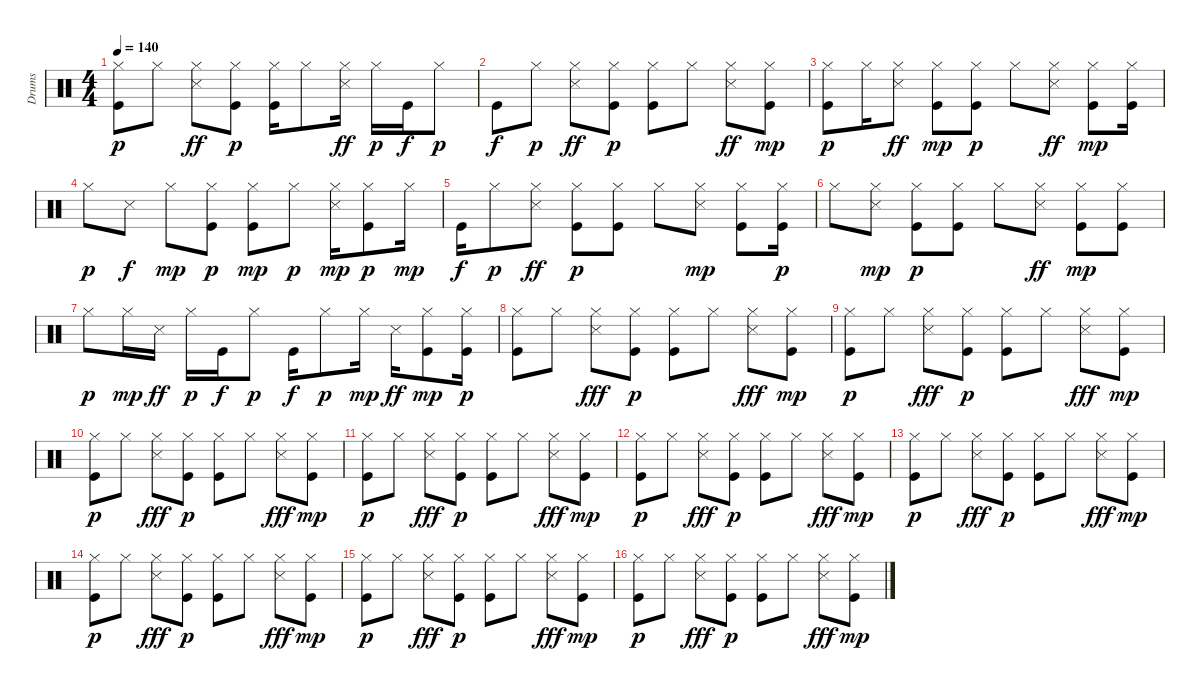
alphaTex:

\track ("Drums" "Drums") {instrument percussion}
\staff {score}
\articulation defaults
\ts (4 4)
\tempo 140
\clef neutral
\ks c
("Hi-Hat (closed)" "Kick (hit)").8{dy p} "Hi-Hat (closed)".8 ("Hi-Hat (closed)" "Snare (side stick) 3").8{dy ff} ("Kick (hit)" "Hi-Hat (closed)").8{dy p} ("Kick (hit)" "Hi-Hat (closed)").16 "Hi-Hat (closed)".8 ("Hi-Hat (closed)" "Snare (side stick) 3").16{dy ff} "Hi-Hat (closed)".16{dy p} "Kick (hit)".16{dy f} "Hi-Hat (closed)".8{dy p} |
"Kick (hit)".8{dy f} "Hi-Hat (closed)".8{dy p} ("Hi-Hat (closed)" "Snare (side stick) 3").8{dy ff} ("Hi-Hat (closed)" "Kick (hit)").8{dy p} ("Kick (hit)" "Hi-Hat (closed)").8 "Hi-Hat (closed)".8 ("Hi-Hat (closed)" "Snare (side stick) 3").8{dy ff} ("Kick (hit)" "Hi-Hat (closed)").8{dy mp} |
("Kick (hit)" "Hi-Hat (closed)").8{dy p} "Hi-Hat (closed)".16 ("Hi-Hat (closed)" "Snare (side stick) 3").8{dy ff} ("Kick (hit)" "Hi-Hat (closed)").8{dy mp} ("Kick (hit)" "Hi-Hat (closed)").8{dy p} "Hi-Hat (closed)".8 ("Hi-Hat (closed)" "Snare (side stick) 3").8{dy ff} ("Hi-Hat (closed)" "Kick (hit)").8{dy mp} ("Kick (hit)" "Hi-Hat (closed)").16 |
"Hi-Hat (closed)".8{dy p} "Snare (side stick) 3".8{dy f} "Hi-Hat (closed)".8{dy mp} ("Kick (hit)" "Hi-Hat (closed)").8{dy p} ("Hi-Hat (closed)" "Kick (hit)").8{dy mp} "Hi-Hat (closed)".8{dy p} ("Snare (side stick) 3" "Hi-Hat (closed)").16{dy mp} ("Kick (hit)" "Hi-Hat (closed)").8{dy p} "Hi-Hat (closed)".16{dy mp} |
"Kick (hit)".16{dy f} "Hi-Hat (closed)".8{dy p} ("Hi-Hat (closed)" "Snare (side stick) 3").8{dy ff} ("Kick (hit)" "Hi-Hat (closed)").8{dy p} ("Kick (hit)" "Hi-Hat (closed)").8 "Hi-Hat (closed)".8 ("Hi-Hat (closed)" "Snare (side stick) 3").8{dy mp} ("Kick (hit)" "Hi-Hat (closed)").8 ("Hi-Hat (closed)" "Kick (hit)").16{dy p} |
"Hi-Hat (closed)".8 ("Snare (side stick) 3" "Hi-Hat (closed)").8{dy mp} ("Kick (hit)" "Hi-Hat (closed)").8{dy p} ("Hi-Hat (closed)" "Kick (hit)").8 "Hi-Hat (closed)".8 ("Hi-Hat (closed)" "Snare (side stick) 3").8{dy ff} ("Kick (hit)" "Hi-Hat (closed)").8{dy mp} ("Hi-Hat (closed)" "Kick (hit)").8 |
"Hi-Hat (closed)".8{dy p} "Hi-Hat (closed)".16{dy mp} "Snare (side stick) 3".16{dy ff} "Hi-Hat (closed)".16{dy p} "Kick (hit)".16{dy f} "Hi-Hat (closed)".8{dy p} "Kick (hit)".16{dy f} "Hi-Hat (closed)".8{dy p} "Hi-Hat (closed)".16{dy mp} "Snare (side stick) 3".16{dy ff} ("Hi-Hat (closed)" "Kick (hit)").8{dy mp} ("Hi-Hat (closed)" "Kick (hit)").16{dy p} |
("Kick (hit)" "Hi-Hat (closed)").8 "Hi-Hat (closed)".8 ("Hi-Hat (closed)" "Snare (side stick) 3").8{dy fff} ("Kick (hit)" "Hi-Hat (closed)").8{dy p} ("Kick (hit)" "Hi-Hat (closed)").8 "Hi-Hat (closed)".8 ("Hi-Hat (closed)" "Snare (side stick) 3").8{dy fff} ("Hi-Hat (closed)" "Kick (hit)").8{dy mp} |
("Kick (hit)" "Hi-Hat (closed)").8{dy p} "Hi-Hat (closed)".8 ("Hi-Hat (closed)" "Snare (side stick) 3").8{dy fff} ("Kick (hit)" "Hi-Hat (closed)").8{dy p} ("Kick (hit)" "Hi-Hat (closed)").8 "Hi-Hat (closed)".8 ("Hi-Hat (closed)" "Snare (side stick) 3").8{dy fff} ("Hi-Hat (closed)" "Kick (hit)").8{dy mp} |
("Kick (hit)" "Hi-Hat (closed)").8{dy p} "Hi-Hat (closed)".8 ("Hi-Hat (closed)" "Snare (side stick) 3").8{dy fff} ("Kick (hit)" "Hi-Hat (closed)").8{dy p} ("Kick (hit)" "Hi-Hat (closed)").8 "Hi-Hat (closed)".8 ("Hi-Hat (closed)" "Snare (side stick) 3").8{dy fff} ("Hi-Hat (closed)" "Kick (hit)").8{dy mp} |
("Kick (hit)" "Hi-Hat (closed)").8{dy p} "Hi-Hat (closed)".8 ("Hi-Hat (closed)" "Snare (side stick) 3").8{dy fff} ("Kick (hit)" "Hi-Hat (closed)").8{dy p} ("Kick (hit)" "Hi-Hat (closed)").8 "Hi-Hat (closed)".8 ("Hi-Hat (closed)" "Snare (side stick) 3").8{dy fff} ("Hi-Hat (closed)" "Kick (hit)").8{dy mp} |
("Kick (hit)" "Hi-Hat (closed)").8{dy p} "Hi-Hat (closed)".8 ("Hi-Hat (closed)" "Snare (side stick) 3").8{dy fff} ("Kick (hit)" "Hi-Hat (closed)").8{dy p} ("Kick (hit)" "Hi-Hat (closed)").8 "Hi-Hat (closed)".8 ("Hi-Hat (closed)" "Snare (side stick) 3").8{dy fff} ("Hi-Hat (closed)" "Kick (hit)").8{dy mp} |
("Kick (hit)" "Hi-Hat (closed)").8{dy p} "Hi-Hat (closed)".8 ("Hi-Hat (closed)" "Snare (side stick) 3").8{dy fff} ("Kick (hit)" "Hi-Hat (closed)").8{dy p} ("Kick (hit)" "Hi-Hat (closed)").8 "Hi-Hat (closed)".8 ("Hi-Hat (closed)" "Snare (side stick) 3").8{dy fff} ("Hi-Hat (closed)" "Kick (hit)").8{dy mp} |
("Kick (hit)" "Hi-Hat (closed)").8{dy p} "Hi-Hat (closed)".8 ("Hi-Hat (closed)" "Snare (side stick) 3").8{dy fff} ("Kick (hit)" "Hi-Hat (closed)").8{dy p} ("Kick (hit)" "Hi-Hat (closed)").8 "Hi-Hat (closed)".8 ("Hi-Hat (closed)" "Snare (side stick) 3").8{dy fff} ("Hi-Hat (closed)" "Kick (hit)").8{dy mp} |
("Kick (hit)" "Hi-Hat (closed)").8{dy p} "Hi-Hat (closed)".8 ("Hi-Hat (closed)" "Snare (side stick) 3").8{dy fff} ("Kick (hit)" "Hi-Hat (closed)").8{dy p} ("Kick (hit)" "Hi-Hat (closed)").8 "Hi-Hat (closed)".8 ("Hi-Hat (closed)" "Snare (side stick) 3").8{dy fff} ("Hi-Hat (closed)" "Kick (hit)").8{dy mp} |
("Kick (hit)" "Hi-Hat (closed)").8{dy p} "Hi-Hat (closed)".8 ("Hi-Hat (closed)" "Snare (side stick) 3").8{dy fff} ("Kick (hit)" "Hi-Hat (closed)").8{dy p} ("Kick (hit)" "Hi-Hat (closed)").8 "Hi-Hat (closed)".8 ("Hi-Hat (closed)" "Snare (side stick) 3").8{dy fff} ("Hi-Hat (closed)" "Kick (hit)").8{dy mp}
